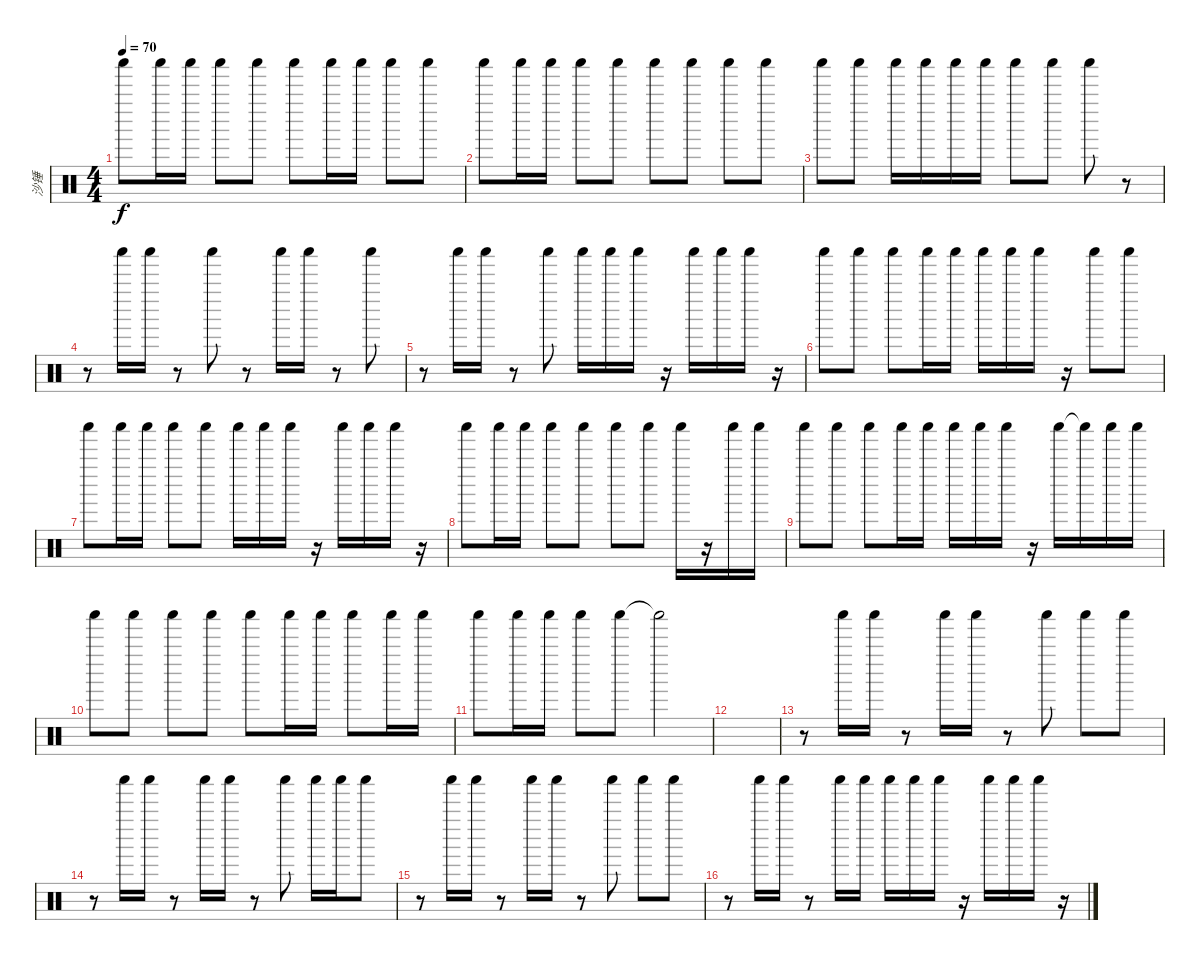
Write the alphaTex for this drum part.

\track ("沙锤" "沙锤") {instrument percussion}
\staff {score}
\articulation defaults
\ts (4 4)
\tempo 70
\clef neutral
\ks c "Shaker (hit)".8{dy f} "Shaker (hit)".16 "Shaker (hit)".16 "Shaker (hit)".8 "Shaker (hit)".8 "Shaker (hit)".8 "Shaker (hit)".16 "Shaker (hit)".16 "Shaker (hit)".8 "Shaker (hit)".8
|
"Shaker (hit)".8 "Shaker (hit)".16 "Shaker (hit)".16 "Shaker (hit)".8 "Shaker (hit)".8 "Shaker (hit)".8 "Shaker (hit)".8 "Shaker (hit)".8 "Shaker (hit)".8 |
"Shaker (hit)".8 "Shaker (hit)".8 "Shaker (hit)".16 "Shaker (hit)".16 "Shaker (hit)".16 "Shaker (hit)".16 "Shaker (hit)".8 "Shaker (hit)".8 "Shaker (hit)".8 r.8 |
r.8 "Shaker (hit)".16 "Shaker (hit)".16 r.8 "Shaker (hit)".8 r.8 "Shaker (hit)".16 "Shaker (hit)".16 r.8 "Shaker (hit)".8 |
r.8 "Shaker (hit)".16 "Shaker (hit)".16 r.8 "Shaker (hit)".8 "Shaker (hit)".16 "Shaker (hit)".16 "Shaker (hit)".16 r.16 "Shaker (hit)".16 "Shaker (hit)".16 "Shaker (hit)".16 r.16 |
"Shaker (hit)".8 "Shaker (hit)".8 "Shaker (hit)".8 "Shaker (hit)".16 "Shaker (hit)".16 "Shaker (hit)".16 "Shaker (hit)".16 "Shaker (hit)".16 r.16 "Shaker (hit)".8 "Shaker (hit)".8 |
"Shaker (hit)".8 "Shaker (hit)".16 "Shaker (hit)".16 "Shaker (hit)".8 "Shaker (hit)".8 "Shaker (hit)".16 "Shaker (hit)".16 "Shaker (hit)".16 r.16 "Shaker (hit)".16 "Shaker (hit)".16 "Shaker (hit)".16 r.16 |
"Shaker (hit)".8 "Shaker (hit)".16 "Shaker (hit)".16 "Shaker (hit)".8 "Shaker (hit)".8 "Shaker (hit)".8 "Shaker (hit)".8 "Shaker (hit)".16 r.16 "Shaker (hit)".16 "Shaker (hit)".16 |
"Shaker (hit)".8 "Shaker (hit)".8 "Shaker (hit)".8 "Shaker (hit)".16 "Shaker (hit)".16 "Shaker (hit)".16 "Shaker (hit)".16 "Shaker (hit)".16 r.16 "Shaker (hit)".16 "Shaker (hit)"{t}.16 "Shaker (hit)".16 "Shaker (hit)".16 |
"Shaker (hit)".8 "Shaker (hit)".8 "Shaker (hit)".8 "Shaker (hit)".8 "Shaker (hit)".8 "Shaker (hit)".16 "Shaker (hit)".16 "Shaker (hit)".8 "Shaker (hit)".16 "Shaker (hit)".16 |
"Shaker (hit)".8 "Shaker (hit)".16 "Shaker (hit)".16 "Shaker (hit)".8 "Shaker (hit)".8 "Shaker (hit)"{t}.2 |
|
r.8 "Shaker (hit)".16 "Shaker (hit)".16 r.8 "Shaker (hit)".16 "Shaker (hit)".16 r.8 "Shaker (hit)".8 "Shaker (hit)".8 "Shaker (hit)".8 |
r.8 "Shaker (hit)".16 "Shaker (hit)".16 r.8 "Shaker (hit)".16 "Shaker (hit)".16 r.8 "Shaker (hit)".8 "Shaker (hit)".16 "Shaker (hit)".16 "Shaker (hit)".8 |
r.8 "Shaker (hit)".16 "Shaker (hit)".16 r.8 "Shaker (hit)".16 "Shaker (hit)".16 r.8 "Shaker (hit)".8 "Shaker (hit)".8 "Shaker (hit)".8 |
r.8 "Shaker (hit)".16 "Shaker (hit)".16 r.8 "Shaker (hit)".16 "Shaker (hit)".16 "Shaker (hit)".16 "Shaker (hit)".16 "Shaker (hit)".16 r.16 "Shaker (hit)".16 "Shaker (hit)".16 "Shaker (hit)".16 r.16
